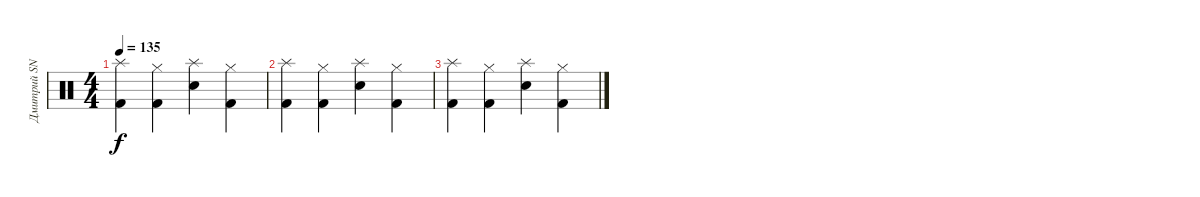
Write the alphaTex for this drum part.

\track ("Дмитрий SNAKE Хакимов" "Дмитрий SN") {instrument percussion}
\staff {score}
\articulation defaults
\ts (4 4)
\tempo 135
\clef neutral
\ks c
("Splash (hit)" "Kick (hit) 2").4{dy f} ("Hi-Hat (closed)" "Kick (hit) 2").4 ("Splash (hit)" "Snare (hit) 2").4 ("Hi-Hat (closed)" "Kick (hit) 2").4 |
("Splash (hit)" "Kick (hit) 2").4 ("Hi-Hat (closed)" "Kick (hit) 2").4 ("Splash (hit)" "Snare (hit) 2").4 ("Hi-Hat (closed)" "Kick (hit) 2").4 |
("Splash (hit)" "Kick (hit) 2").4 ("Hi-Hat (closed)" "Kick (hit) 2").4 ("Splash (hit)" "Snare (hit) 2").4 ("Hi-Hat (closed)" "Kick (hit) 2").4
